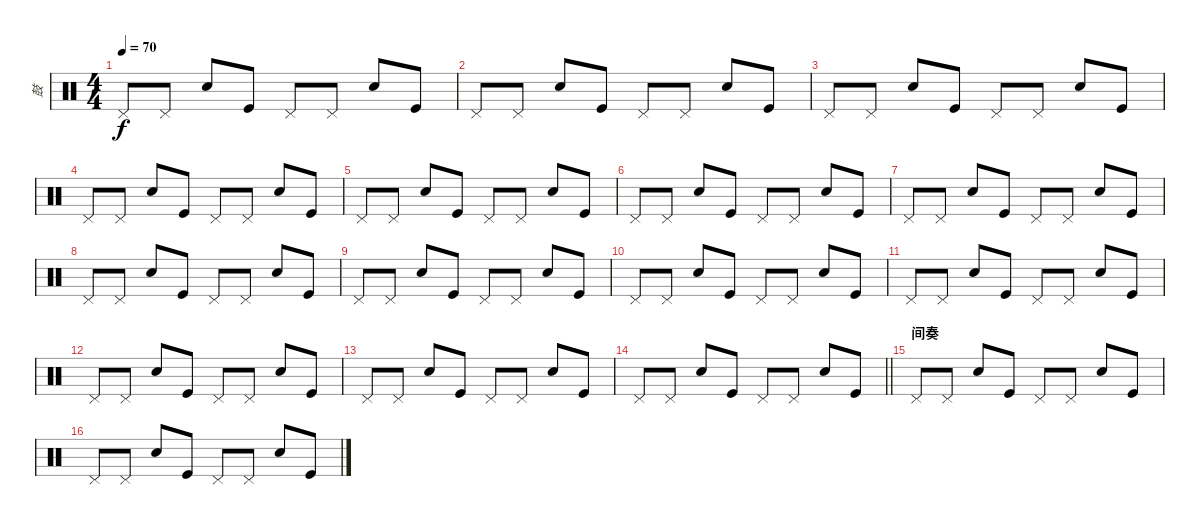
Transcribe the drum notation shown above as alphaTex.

\track ("鼓" "鼓") {instrument percussion}
\staff {score}
\articulation defaults
\ts (4 4)
\tempo 70
\clef neutral
\ks c "Pedal Hi-Hat (hit)".8{dy f} "Pedal Hi-Hat (hit)".8 "Snare (hit) 2".8 "Kick (hit)".8 "Pedal Hi-Hat (hit)".8 "Pedal Hi-Hat (hit)".8 "Snare (hit) 2".8 "Kick (hit)".8
|
"Pedal Hi-Hat (hit)".8 "Pedal Hi-Hat (hit)".8 "Snare (hit) 2".8 "Kick (hit)".8 "Pedal Hi-Hat (hit)".8 "Pedal Hi-Hat (hit)".8 "Snare (hit) 2".8 "Kick (hit)".8 |
"Pedal Hi-Hat (hit)".8 "Pedal Hi-Hat (hit)".8 "Snare (hit) 2".8 "Kick (hit)".8 "Pedal Hi-Hat (hit)".8 "Pedal Hi-Hat (hit)".8 "Snare (hit) 2".8 "Kick (hit)".8 |
"Pedal Hi-Hat (hit)".8 "Pedal Hi-Hat (hit)".8 "Snare (hit) 2".8 "Kick (hit)".8 "Pedal Hi-Hat (hit)".8 "Pedal Hi-Hat (hit)".8 "Snare (hit) 2".8 "Kick (hit)".8 |
"Pedal Hi-Hat (hit)".8 "Pedal Hi-Hat (hit)".8 "Snare (hit) 2".8 "Kick (hit)".8 "Pedal Hi-Hat (hit)".8 "Pedal Hi-Hat (hit)".8 "Snare (hit) 2".8 "Kick (hit)".8 |
"Pedal Hi-Hat (hit)".8 "Pedal Hi-Hat (hit)".8 "Snare (hit) 2".8 "Kick (hit)".8 "Pedal Hi-Hat (hit)".8 "Pedal Hi-Hat (hit)".8 "Snare (hit) 2".8 "Kick (hit)".8 |
"Pedal Hi-Hat (hit)".8 "Pedal Hi-Hat (hit)".8 "Snare (hit) 2".8 "Kick (hit)".8 "Pedal Hi-Hat (hit)".8 "Pedal Hi-Hat (hit)".8 "Snare (hit) 2".8 "Kick (hit)".8 |
"Pedal Hi-Hat (hit)".8 "Pedal Hi-Hat (hit)".8 "Snare (hit) 2".8 "Kick (hit)".8 "Pedal Hi-Hat (hit)".8 "Pedal Hi-Hat (hit)".8 "Snare (hit) 2".8 "Kick (hit)".8 |
"Pedal Hi-Hat (hit)".8 "Pedal Hi-Hat (hit)".8 "Snare (hit) 2".8 "Kick (hit)".8 "Pedal Hi-Hat (hit)".8 "Pedal Hi-Hat (hit)".8 "Snare (hit) 2".8 "Kick (hit)".8 |
"Pedal Hi-Hat (hit)".8 "Pedal Hi-Hat (hit)".8 "Snare (hit) 2".8 "Kick (hit)".8 "Pedal Hi-Hat (hit)".8 "Pedal Hi-Hat (hit)".8 "Snare (hit) 2".8 "Kick (hit)".8 |
"Pedal Hi-Hat (hit)".8 "Pedal Hi-Hat (hit)".8 "Snare (hit) 2".8 "Kick (hit)".8 "Pedal Hi-Hat (hit)".8 "Pedal Hi-Hat (hit)".8 "Snare (hit) 2".8 "Kick (hit)".8 |
"Pedal Hi-Hat (hit)".8 "Pedal Hi-Hat (hit)".8 "Snare (hit) 2".8 "Kick (hit)".8 "Pedal Hi-Hat (hit)".8 "Pedal Hi-Hat (hit)".8 "Snare (hit) 2".8 "Kick (hit)".8 |
"Pedal Hi-Hat (hit)".8 "Pedal Hi-Hat (hit)".8 "Snare (hit) 2".8 "Kick (hit)".8 "Pedal Hi-Hat (hit)".8 "Pedal Hi-Hat (hit)".8 "Snare (hit) 2".8 "Kick (hit)".8 |
\barLineRight lightlight "Pedal Hi-Hat (hit)".8 "Pedal Hi-Hat (hit)".8 "Snare (hit) 2".8 "Kick (hit)".8 "Pedal Hi-Hat (hit)".8 "Pedal Hi-Hat (hit)".8 "Snare (hit) 2".8 "Kick (hit)".8
|
\section ("" "间奏")
"Pedal Hi-Hat (hit)".8 "Pedal Hi-Hat (hit)".8 "Snare (hit) 2".8 "Kick (hit)".8 "Pedal Hi-Hat (hit)".8 "Pedal Hi-Hat (hit)".8 "Snare (hit) 2".8 "Kick (hit)".8 |
"Pedal Hi-Hat (hit)".8 "Pedal Hi-Hat (hit)".8 "Snare (hit) 2".8 "Kick (hit)".8 "Pedal Hi-Hat (hit)".8 "Pedal Hi-Hat (hit)".8 "Snare (hit) 2".8 "Kick (hit)".8
